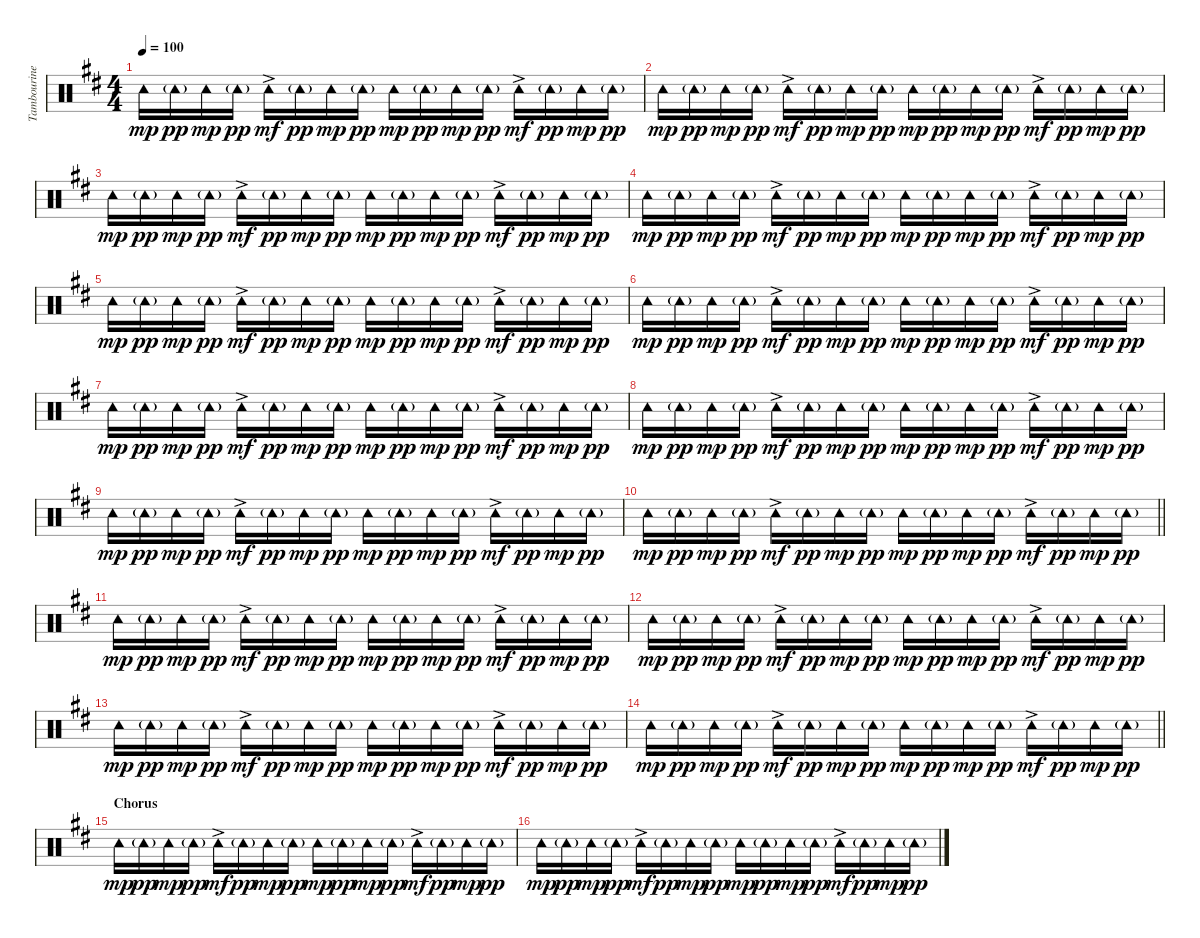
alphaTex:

\track ("Tambourine" "Tambourine") {instrument percussion}
\staff {score}
\articulation defaults
\ts (4 4)
\tempo 100
\clef neutral
\ks d "Tambourine (hit)".16{dy mp} "Tambourine (hit)"{g}.16{dy pp} "Tambourine (hit)".16{dy mp} "Tambourine (hit)"{g}.16{dy pp} "Tambourine (hit)"{ac}.16{dy mf} "Tambourine (hit)"{g}.16{dy pp} "Tambourine (hit)".16{dy mp} "Tambourine (hit)"{g}.16{dy pp} "Tambourine (hit)".16{dy mp} "Tambourine (hit)"{g}.16{dy pp} "Tambourine (hit)".16{dy mp} "Tambourine (hit)"{g}.16{dy pp} "Tambourine (hit)"{ac}.16{dy mf} "Tambourine (hit)"{g}.16{dy pp} "Tambourine (hit)".16{dy mp} "Tambourine (hit)"{g}.16{dy pp}
|
"Tambourine (hit)".16{dy mp} "Tambourine (hit)"{g}.16{dy pp} "Tambourine (hit)".16{dy mp} "Tambourine (hit)"{g}.16{dy pp} "Tambourine (hit)"{ac}.16{dy mf} "Tambourine (hit)"{g}.16{dy pp} "Tambourine (hit)".16{dy mp} "Tambourine (hit)"{g}.16{dy pp} "Tambourine (hit)".16{dy mp} "Tambourine (hit)"{g}.16{dy pp} "Tambourine (hit)".16{dy mp} "Tambourine (hit)"{g}.16{dy pp} "Tambourine (hit)"{ac}.16{dy mf} "Tambourine (hit)"{g}.16{dy pp} "Tambourine (hit)".16{dy mp} "Tambourine (hit)"{g}.16{dy pp} |
"Tambourine (hit)".16{dy mp} "Tambourine (hit)"{g}.16{dy pp} "Tambourine (hit)".16{dy mp} "Tambourine (hit)"{g}.16{dy pp} "Tambourine (hit)"{ac}.16{dy mf} "Tambourine (hit)"{g}.16{dy pp} "Tambourine (hit)".16{dy mp} "Tambourine (hit)"{g}.16{dy pp} "Tambourine (hit)".16{dy mp} "Tambourine (hit)"{g}.16{dy pp} "Tambourine (hit)".16{dy mp} "Tambourine (hit)"{g}.16{dy pp} "Tambourine (hit)"{ac}.16{dy mf} "Tambourine (hit)"{g}.16{dy pp} "Tambourine (hit)".16{dy mp} "Tambourine (hit)"{g}.16{dy pp} |
"Tambourine (hit)".16{dy mp} "Tambourine (hit)"{g}.16{dy pp} "Tambourine (hit)".16{dy mp} "Tambourine (hit)"{g}.16{dy pp} "Tambourine (hit)"{ac}.16{dy mf} "Tambourine (hit)"{g}.16{dy pp} "Tambourine (hit)".16{dy mp} "Tambourine (hit)"{g}.16{dy pp} "Tambourine (hit)".16{dy mp} "Tambourine (hit)"{g}.16{dy pp} "Tambourine (hit)".16{dy mp} "Tambourine (hit)"{g}.16{dy pp} "Tambourine (hit)"{ac}.16{dy mf} "Tambourine (hit)"{g}.16{dy pp} "Tambourine (hit)".16{dy mp} "Tambourine (hit)"{g}.16{dy pp} |
"Tambourine (hit)".16{dy mp} "Tambourine (hit)"{g}.16{dy pp} "Tambourine (hit)".16{dy mp} "Tambourine (hit)"{g}.16{dy pp} "Tambourine (hit)"{ac}.16{dy mf} "Tambourine (hit)"{g}.16{dy pp} "Tambourine (hit)".16{dy mp} "Tambourine (hit)"{g}.16{dy pp} "Tambourine (hit)".16{dy mp} "Tambourine (hit)"{g}.16{dy pp} "Tambourine (hit)".16{dy mp} "Tambourine (hit)"{g}.16{dy pp} "Tambourine (hit)"{ac}.16{dy mf} "Tambourine (hit)"{g}.16{dy pp} "Tambourine (hit)".16{dy mp} "Tambourine (hit)"{g}.16{dy pp} |
"Tambourine (hit)".16{dy mp} "Tambourine (hit)"{g}.16{dy pp} "Tambourine (hit)".16{dy mp} "Tambourine (hit)"{g}.16{dy pp} "Tambourine (hit)"{ac}.16{dy mf} "Tambourine (hit)"{g}.16{dy pp} "Tambourine (hit)".16{dy mp} "Tambourine (hit)"{g}.16{dy pp} "Tambourine (hit)".16{dy mp} "Tambourine (hit)"{g}.16{dy pp} "Tambourine (hit)".16{dy mp} "Tambourine (hit)"{g}.16{dy pp} "Tambourine (hit)"{ac}.16{dy mf} "Tambourine (hit)"{g}.16{dy pp} "Tambourine (hit)".16{dy mp} "Tambourine (hit)"{g}.16{dy pp} |
"Tambourine (hit)".16{dy mp} "Tambourine (hit)"{g}.16{dy pp} "Tambourine (hit)".16{dy mp} "Tambourine (hit)"{g}.16{dy pp} "Tambourine (hit)"{ac}.16{dy mf} "Tambourine (hit)"{g}.16{dy pp} "Tambourine (hit)".16{dy mp} "Tambourine (hit)"{g}.16{dy pp} "Tambourine (hit)".16{dy mp} "Tambourine (hit)"{g}.16{dy pp} "Tambourine (hit)".16{dy mp} "Tambourine (hit)"{g}.16{dy pp} "Tambourine (hit)"{ac}.16{dy mf} "Tambourine (hit)"{g}.16{dy pp} "Tambourine (hit)".16{dy mp} "Tambourine (hit)"{g}.16{dy pp} |
"Tambourine (hit)".16{dy mp} "Tambourine (hit)"{g}.16{dy pp} "Tambourine (hit)".16{dy mp} "Tambourine (hit)"{g}.16{dy pp} "Tambourine (hit)"{ac}.16{dy mf} "Tambourine (hit)"{g}.16{dy pp} "Tambourine (hit)".16{dy mp} "Tambourine (hit)"{g}.16{dy pp} "Tambourine (hit)".16{dy mp} "Tambourine (hit)"{g}.16{dy pp} "Tambourine (hit)".16{dy mp} "Tambourine (hit)"{g}.16{dy pp} "Tambourine (hit)"{ac}.16{dy mf} "Tambourine (hit)"{g}.16{dy pp} "Tambourine (hit)".16{dy mp} "Tambourine (hit)"{g}.16{dy pp} |
"Tambourine (hit)".16{dy mp} "Tambourine (hit)"{g}.16{dy pp} "Tambourine (hit)".16{dy mp} "Tambourine (hit)"{g}.16{dy pp} "Tambourine (hit)"{ac}.16{dy mf} "Tambourine (hit)"{g}.16{dy pp} "Tambourine (hit)".16{dy mp} "Tambourine (hit)"{g}.16{dy pp} "Tambourine (hit)".16{dy mp} "Tambourine (hit)"{g}.16{dy pp} "Tambourine (hit)".16{dy mp} "Tambourine (hit)"{g}.16{dy pp} "Tambourine (hit)"{ac}.16{dy mf} "Tambourine (hit)"{g}.16{dy pp} "Tambourine (hit)".16{dy mp} "Tambourine (hit)"{g}.16{dy pp} |
\barLineRight lightlight "Tambourine (hit)".16{dy mp} "Tambourine (hit)"{g}.16{dy pp} "Tambourine (hit)".16{dy mp} "Tambourine (hit)"{g}.16{dy pp} "Tambourine (hit)"{ac}.16{dy mf} "Tambourine (hit)"{g}.16{dy pp} "Tambourine (hit)".16{dy mp} "Tambourine (hit)"{g}.16{dy pp} "Tambourine (hit)".16{dy mp} "Tambourine (hit)"{g}.16{dy pp} "Tambourine (hit)".16{dy mp} "Tambourine (hit)"{g}.16{dy pp} "Tambourine (hit)"{ac}.16{dy mf} "Tambourine (hit)"{g}.16{dy pp} "Tambourine (hit)".16{dy mp} "Tambourine (hit)"{g}.16{dy pp}
|
"Tambourine (hit)".16{dy mp} "Tambourine (hit)"{g}.16{dy pp} "Tambourine (hit)".16{dy mp} "Tambourine (hit)"{g}.16{dy pp} "Tambourine (hit)"{ac}.16{dy mf} "Tambourine (hit)"{g}.16{dy pp} "Tambourine (hit)".16{dy mp} "Tambourine (hit)"{g}.16{dy pp} "Tambourine (hit)".16{dy mp} "Tambourine (hit)"{g}.16{dy pp} "Tambourine (hit)".16{dy mp} "Tambourine (hit)"{g}.16{dy pp} "Tambourine (hit)"{ac}.16{dy mf} "Tambourine (hit)"{g}.16{dy pp} "Tambourine (hit)".16{dy mp} "Tambourine (hit)"{g}.16{dy pp} |
"Tambourine (hit)".16{dy mp} "Tambourine (hit)"{g}.16{dy pp} "Tambourine (hit)".16{dy mp} "Tambourine (hit)"{g}.16{dy pp} "Tambourine (hit)"{ac}.16{dy mf} "Tambourine (hit)"{g}.16{dy pp} "Tambourine (hit)".16{dy mp} "Tambourine (hit)"{g}.16{dy pp} "Tambourine (hit)".16{dy mp} "Tambourine (hit)"{g}.16{dy pp} "Tambourine (hit)".16{dy mp} "Tambourine (hit)"{g}.16{dy pp} "Tambourine (hit)"{ac}.16{dy mf} "Tambourine (hit)"{g}.16{dy pp} "Tambourine (hit)".16{dy mp} "Tambourine (hit)"{g}.16{dy pp} |
"Tambourine (hit)".16{dy mp} "Tambourine (hit)"{g}.16{dy pp} "Tambourine (hit)".16{dy mp} "Tambourine (hit)"{g}.16{dy pp} "Tambourine (hit)"{ac}.16{dy mf} "Tambourine (hit)"{g}.16{dy pp} "Tambourine (hit)".16{dy mp} "Tambourine (hit)"{g}.16{dy pp} "Tambourine (hit)".16{dy mp} "Tambourine (hit)"{g}.16{dy pp} "Tambourine (hit)".16{dy mp} "Tambourine (hit)"{g}.16{dy pp} "Tambourine (hit)"{ac}.16{dy mf} "Tambourine (hit)"{g}.16{dy pp} "Tambourine (hit)".16{dy mp} "Tambourine (hit)"{g}.16{dy pp} |
\barLineRight lightlight "Tambourine (hit)".16{dy mp} "Tambourine (hit)"{g}.16{dy pp} "Tambourine (hit)".16{dy mp} "Tambourine (hit)"{g}.16{dy pp} "Tambourine (hit)"{ac}.16{dy mf} "Tambourine (hit)"{g}.16{dy pp} "Tambourine (hit)".16{dy mp} "Tambourine (hit)"{g}.16{dy pp} "Tambourine (hit)".16{dy mp} "Tambourine (hit)"{g}.16{dy pp} "Tambourine (hit)".16{dy mp} "Tambourine (hit)"{g}.16{dy pp} "Tambourine (hit)"{ac}.16{dy mf} "Tambourine (hit)"{g}.16{dy pp} "Tambourine (hit)".16{dy mp} "Tambourine (hit)"{g}.16{dy pp}
|
\section ("" "Chorus")
"Tambourine (hit)".16{dy mp} "Tambourine (hit)"{g}.16{dy pp} "Tambourine (hit)".16{dy mp} "Tambourine (hit)"{g}.16{dy pp} "Tambourine (hit)"{ac}.16{dy mf} "Tambourine (hit)"{g}.16{dy pp} "Tambourine (hit)".16{dy mp} "Tambourine (hit)"{g}.16{dy pp} "Tambourine (hit)".16{dy mp} "Tambourine (hit)"{g}.16{dy pp} "Tambourine (hit)".16{dy mp} "Tambourine (hit)"{g}.16{dy pp} "Tambourine (hit)"{ac}.16{dy mf} "Tambourine (hit)"{g}.16{dy pp} "Tambourine (hit)".16{dy mp} "Tambourine (hit)"{g}.16{dy pp} |
"Tambourine (hit)".16{dy mp} "Tambourine (hit)"{g}.16{dy pp} "Tambourine (hit)".16{dy mp} "Tambourine (hit)"{g}.16{dy pp} "Tambourine (hit)"{ac}.16{dy mf} "Tambourine (hit)"{g}.16{dy pp} "Tambourine (hit)".16{dy mp} "Tambourine (hit)"{g}.16{dy pp} "Tambourine (hit)".16{dy mp} "Tambourine (hit)"{g}.16{dy pp} "Tambourine (hit)".16{dy mp} "Tambourine (hit)"{g}.16{dy pp} "Tambourine (hit)"{ac}.16{dy mf} "Tambourine (hit)"{g}.16{dy pp} "Tambourine (hit)".16{dy mp} "Tambourine (hit)"{g}.16{dy pp}
